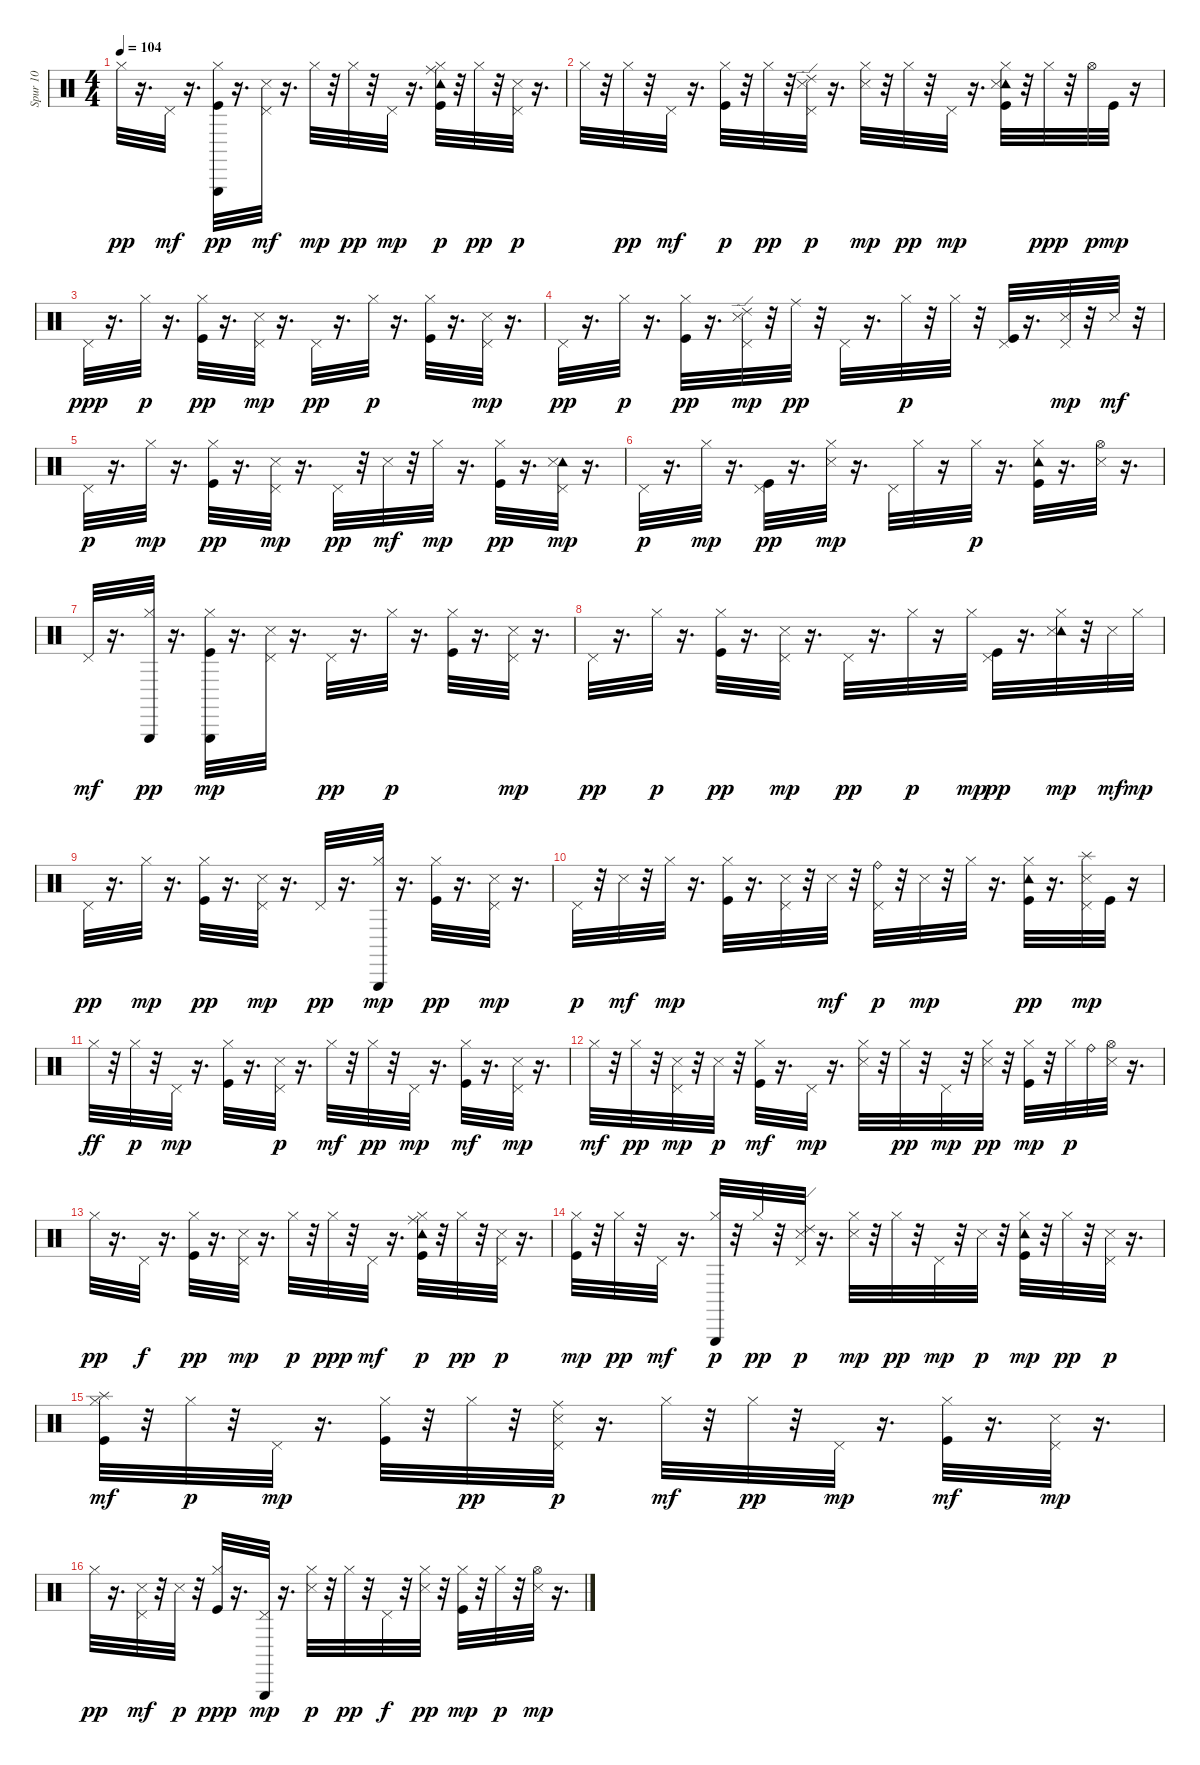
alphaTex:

\track ("Spur 10" "Spur 10") {instrument percussion}
\staff {score}
\articulation defaults
\ts (4 4)
\tempo 104
\clef neutral
\ks c "Hi-Hat (closed)".32{dy pp}
r.16{d} "Pedal Hi-Hat (hit)".32{dy mf} r.16{d} ("Triangle (hit)" "Kick (hit)" "Hi-Hat (closed)").32{dy pp} r.16{d} ("Snare (side stick) 3" "Pedal Hi-Hat (hit)").32{dy mf} r.16{d} "Hi-Hat (closed)".32{dy mp} r.32 "Hi-Hat (closed)".32{dy pp} r.32 "Pedal Hi-Hat (hit)".32{dy mp} r.16{d} ("Ride (middle)" "Tambourine (hit)" "Kick (hit)" "Hi-Hat (closed)").32{dy p} r.32 "Hi-Hat (closed)".32{dy pp} r.32 ("Pedal Hi-Hat (hit)" "Snare (side stick) 3").32{dy p} r.16{d} |
"Hi-Hat (closed)".32 r.32 "Hi-Hat (closed)".32{dy pp} r.32 "Pedal Hi-Hat (hit)".32{dy mf} r.16{d} ("Kick (hit)" "Hi-Hat (closed)").32{dy p} r.32 "Hi-Hat (closed)".32{dy pp} r.32 ("Snare (side stick) 3" "Pedal Hi-Hat (hit)" "Ride (edge) 2").32{dy p} r.16{d} ("Snare (side stick) 3" "Hi-Hat (closed)").32{dy mp} r.32 "Hi-Hat (closed)".32{dy pp} r.32 "Pedal Hi-Hat (hit)".32{dy mp} r.16{d} ("Tambourine (hit)" "Snare (side stick) 3" "Kick (hit)" "Hi-Hat (closed)").32 r.32 "Hi-Hat (closed)".32{dy ppp} r.32 "Hi-Hat (open)".32{dy p} "Kick (hit)".32{dy mp} r.16 |
"Pedal Hi-Hat (hit)".32{dy ppp} r.16{d} "Hi-Hat (closed)".32{dy p} r.16{d} ("Kick (hit)" "Hi-Hat (closed)").32{dy pp} r.16{d} ("Pedal Hi-Hat (hit)" "Snare (side stick) 3").32{dy mp} r.16{d} "Pedal Hi-Hat (hit)".32{dy pp} r.16{d} "Hi-Hat (closed)".32{dy p} r.16{d} ("Kick (hit)" "Hi-Hat (closed)").32 r.16{d} ("Pedal Hi-Hat (hit)" "Snare (side stick) 3").32{dy mp} r.16{d} |
"Pedal Hi-Hat (hit)".32{dy pp} r.16{d} "Hi-Hat (closed)".32{dy p} r.16{d} ("Kick (hit)" "Hi-Hat (closed)").32{dy pp} r.16{d} ("Pedal Hi-Hat (hit)" "Ride (edge) 2" "Snare (side stick) 3").32{dy mp} r.32 "Ride (middle)".32{dy pp} r.32 "Pedal Hi-Hat (hit)".32 r.16{d} "Hi-Hat (closed)".32{dy p} r.32 "Hi-Hat (closed)".32 r.32 ("Kick (hit)" "Pedal Hi-Hat (hit)").32 r.16{d} ("Pedal Hi-Hat (hit)" "Snare (side stick) 3").32{dy mp} r.32 "Snare (side stick) 3".32{dy mf} r.32 |
"Pedal Hi-Hat (hit)".32{dy p} r.16{d} "Hi-Hat (closed)".32{dy mp} r.16{d} ("Kick (hit)" "Hi-Hat (closed)").32{dy pp} r.16{d} ("Pedal Hi-Hat (hit)" "Snare (side stick) 3").32{dy mp} r.16{d} "Pedal Hi-Hat (hit)".32{dy pp} r.32 "Snare (side stick) 3".32{dy mf} r.32 "Hi-Hat (closed)".32{dy mp} r.16{d} ("Kick (hit)" "Hi-Hat (closed)").32{dy pp} r.16{d} ("Tambourine (hit)" "Pedal Hi-Hat (hit)" "Snare (side stick) 3").32{dy mp} r.16{d} |
"Pedal Hi-Hat (hit)".32{dy p} r.16{d} "Hi-Hat (closed)".32{dy mp} r.16{d} ("Kick (hit)" "Pedal Hi-Hat (hit)").32{dy pp} r.16{d} ("Hi-Hat (closed)" "Snare (side stick) 3").32{dy mp} r.16{d} "Pedal Hi-Hat (hit)".32 "Hi-Hat (closed)".32 r.16 "Hi-Hat (closed)".32{dy p} r.16{d} ("Kick (hit)" "Hi-Hat (closed)" "Tambourine (hit)").32 r.16{d} ("Hi-Hat (open)" "Snare (side stick) 3").32 r.16{d} |
"Pedal Hi-Hat (hit)".32{dy mf} r.16{d} ("Hi-Hat (closed)" "Triangle (hit)").32{dy pp} r.16{d} ("Kick (hit)" "Hi-Hat (closed)" "Triangle (hit)").32{dy mp} r.16{d} ("Pedal Hi-Hat (hit)" "Snare (side stick) 3").32 r.16{d} "Pedal Hi-Hat (hit)".32{dy pp} r.16{d} "Hi-Hat (closed)".32{dy p} r.16{d} ("Kick (hit)" "Hi-Hat (closed)").32 r.16{d} ("Pedal Hi-Hat (hit)" "Snare (side stick) 3").32{dy mp} r.16{d} |
"Pedal Hi-Hat (hit)".32{dy pp} r.16{d} "Hi-Hat (closed)".32{dy p} r.16{d} ("Kick (hit)" "Hi-Hat (closed)").32{dy pp} r.16{d} ("Pedal Hi-Hat (hit)" "Snare (side stick) 3").32{dy mp} r.16{d} "Pedal Hi-Hat (hit)".32{dy pp} r.16{d} "Hi-Hat (closed)".32{dy p} r.16 "Hi-Hat (closed)".32{dy mp} ("Kick (hit)" "Pedal Hi-Hat (hit)").32{dy pp} r.16{d} ("Tambourine (hit)" "Snare (side stick) 3" "Hi-Hat (closed)").32{dy mp} r.32 "Snare (side stick) 3".32{dy mf} "Hi-Hat (closed)".32{dy mp} |
"Pedal Hi-Hat (hit)".32{dy pp} r.16{d} "Hi-Hat (closed)".32{dy mp} r.16{d} ("Kick (hit)" "Hi-Hat (closed)").32{dy pp} r.16{d} ("Pedal Hi-Hat (hit)" "Snare (side stick) 3").32{dy mp} r.16{d} "Pedal Hi-Hat (hit)".32{dy pp} r.16{d} ("Triangle (hit)" "Hi-Hat (closed)").32{dy mp} r.16{d} ("Kick (hit)" "Hi-Hat (closed)").32{dy pp} r.16{d} ("Pedal Hi-Hat (hit)" "Snare (side stick) 3").32{dy mp} r.16{d} |
"Pedal Hi-Hat (hit)".32{dy p} r.32 "Snare (side stick) 3".32{dy mf} r.32 "Hi-Hat (closed)".32{dy mp} r.16{d} ("Kick (hit)" "Hi-Hat (closed)").32 r.16{d} ("Pedal Hi-Hat (hit)" "Snare (side stick) 3").32 r.32 "Snare (side stick) 3".32{dy mf} r.32 ("Pedal Hi-Hat (hit)" "Ride (bell)").32{dy p} r.32 "Snare (side stick) 3".32{dy mp} r.32 "Hi-Hat (closed)".32 r.16{d} ("Kick (hit)" "Hi-Hat (closed)" "Tambourine (hit)").32{dy pp} r.16{d} ("Splash (hit)" "Pedal Hi-Hat (hit)" "Snare (side stick) 3").32{dy mp} "Kick (hit)".32 r.16 |
"Hi-Hat (closed)".32{dy ff} r.32 "Hi-Hat (closed)".32{dy p} r.32 "Pedal Hi-Hat (hit)".32{dy mp} r.16{d} ("Kick (hit)" "Hi-Hat (closed)").32 r.16{d} ("Snare (side stick) 3" "Pedal Hi-Hat (hit)").32{dy p} r.16{d} "Hi-Hat (closed)".32{dy mf} r.32 "Hi-Hat (closed)".32{dy pp} r.32 "Pedal Hi-Hat (hit)".32{dy mp} r.16{d} ("Kick (hit)" "Hi-Hat (closed)").32{dy mf} r.16{d} ("Snare (side stick) 3" "Pedal Hi-Hat (hit)").32{dy mp} r.16{d} |
"Hi-Hat (closed)".32{dy mf} r.32 "Hi-Hat (closed)".32{dy pp} r.32 ("Snare (side stick) 3" "Pedal Hi-Hat (hit)").32{dy mp} r.32 "Snare (side stick) 3".32{dy p} r.32 ("Kick (hit)" "Hi-Hat (closed)").32{dy mf} r.16{d} "Pedal Hi-Hat (hit)".32{dy mp} r.16{d} ("Snare (side stick) 3" "Hi-Hat (closed)").32 r.32 "Hi-Hat (closed)".32{dy pp} r.32 "Pedal Hi-Hat (hit)".32{dy mp} r.32 ("Snare (side stick) 3" "Hi-Hat (closed)").32{dy pp} r.32 ("Kick (hit)" "Hi-Hat (closed)").32{dy mp} r.32 "Hi-Hat (closed)".32{dy p} "Ride (bell)".32 ("Snare (side stick) 3" "Hi-Hat (open)").32 r.16{d} |
"Hi-Hat (closed)".32{dy pp} r.16{d} "Pedal Hi-Hat (hit)".32{dy f} r.16{d} ("Kick (hit)" "Hi-Hat (closed)").32{dy pp} r.16{d} ("Snare (side stick) 3" "Pedal Hi-Hat (hit)").32{dy mp} r.16{d} "Hi-Hat (closed)".32{dy p} r.32 "Hi-Hat (closed)".32{dy ppp} r.32 "Pedal Hi-Hat (hit)".32{dy mf} r.16{d} ("Ride (middle)" "Tambourine (hit)" "Kick (hit)" "Hi-Hat (closed)").32{dy p} r.32 "Hi-Hat (closed)".32{dy pp} r.32 ("Pedal Hi-Hat (hit)" "Snare (side stick) 3").32{dy p} r.16{d} |
("Kick (hit)" "Hi-Hat (closed)").32{dy mp} r.32 "Hi-Hat (closed)".32{dy pp} r.32 "Pedal Hi-Hat (hit)".32{dy mf} r.16{d} ("Triangle (hit)" "Hi-Hat (closed)").32{dy p} r.32 "Hi-Hat (closed)".32{dy pp} r.32 ("Snare (side stick) 3" "Pedal Hi-Hat (hit)" "Ride (edge) 2").32{dy p} r.16{d} ("Snare (side stick) 3" "Hi-Hat (closed)").32{dy mp} r.32 "Hi-Hat (closed)".32{dy pp} r.32 "Pedal Hi-Hat (hit)".32{dy mp} r.32 "Snare (side stick) 3".32{dy p} r.32 ("Tambourine (hit)" "Kick (hit)" "Hi-Hat (closed)").32{dy mp} r.32 "Hi-Hat (closed)".32{dy pp} r.32 ("Snare (side stick) 3" "Pedal Hi-Hat (hit)").32{dy p} r.16{d} |
("Hi-Hat (closed)" "Kick (hit)" "Splash (hit)").32{dy mf} r.32 "Hi-Hat (closed)".32{dy p} r.32 "Pedal Hi-Hat (hit)".32{dy mp} r.16{d} ("Kick (hit)" "Hi-Hat (closed)").32 r.32 "Hi-Hat (closed)".32{dy pp} r.32 ("Ride (middle)" "Snare (side stick) 3" "Pedal Hi-Hat (hit)").32{dy p} r.16{d} "Hi-Hat (closed)".32{dy mf} r.32 "Hi-Hat (closed)".32{dy pp} r.32 "Pedal Hi-Hat (hit)".32{dy mp} r.16{d} ("Kick (hit)" "Hi-Hat (closed)").32{dy mf} r.16{d} ("Snare (side stick) 3" "Pedal Hi-Hat (hit)").32{dy mp} r.16{d} |
"Hi-Hat (closed)".32{dy pp} r.16{d} ("Snare (side stick) 3" "Pedal Hi-Hat (hit)").32{dy mf} r.32 "Snare (side stick) 3".32{dy p} r.32 ("Kick (hit)" "Hi-Hat (closed)").32{dy ppp} r.16{d} ("Pedal Hi-Hat (hit)" "Triangle (hit)").32{dy mp} r.16{d} ("Snare (side stick) 3" "Hi-Hat (closed)").32{dy p} r.32 "Hi-Hat (closed)".32{dy pp} r.32 "Pedal Hi-Hat (hit)".32{dy f} r.32 ("Snare (side stick) 3" "Hi-Hat (closed)").32{dy pp} r.32 ("Kick (hit)" "Hi-Hat (closed)").32{dy mp} r.32 "Hi-Hat (closed)".32{dy p} r.32 ("Snare (side stick) 3" "Hi-Hat (open)").32{dy mp} r.16{d}
